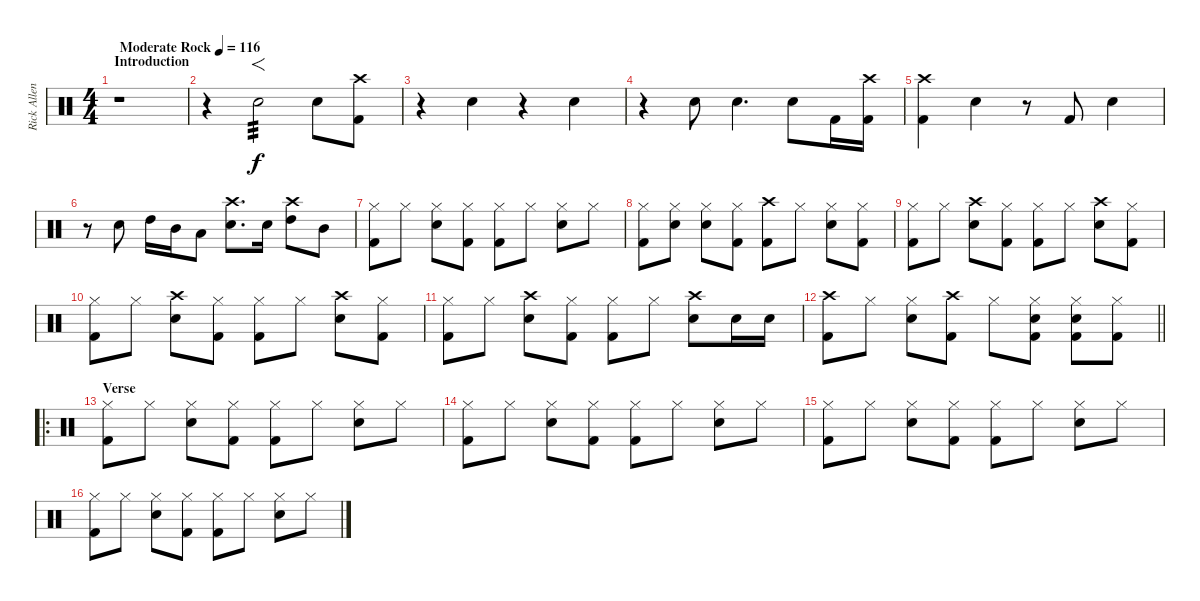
\track ("Rick Allen" "Rick Allen") {instrument percussion}
\staff {score}
\articulation defaults
\ts (4 4)
\section ("" "Introduction")
\tempo (116 "Moderate Rock")
\clef neutral
\ks c
r.1{dy f} |
r.4 "Electric Snare (hit)".2{f tp 3} "Electric Snare (hit)".8 ("Crash high (hit)" "Kick (hit) 2").8 |
r.4 "Electric Snare (hit)".4 r.4 "Electric Snare (hit)".4 |
r.4 "Electric Snare (hit)".8 "Electric Snare (hit)".4{d} "Electric Snare (hit)".8 "Kick (hit) 2".16 ("Crash high (hit)" "Kick (hit) 2").16 |
("Crash high (hit)" "Kick (hit) 2").4 "Electric Snare (hit)".4 r.8 "Kick (hit) 2".8 "Electric Snare (hit)".4 |
r.8 "Electric Snare (hit)".8 "High Tom (hit)".16 "Mid Tom (hit)".16 "Low Tom (hit)".8 ("Crash high (hit)" "Electric Snare (hit)").8{d} "Electric Snare (hit)".16 ("Crash high (hit)" "High Tom (hit)").8 "Mid Tom (hit)".8 |
("Hi-Hat (closed)" "Kick (hit) 2").8 "Hi-Hat (closed)".8 ("Hi-Hat (closed)" "Electric Snare (hit)").8 ("Hi-Hat (closed)" "Kick (hit) 2").8 ("Hi-Hat (closed)" "Kick (hit) 2").8 "Hi-Hat (closed)".8 ("Hi-Hat (closed)" "Electric Snare (hit)").8 "Hi-Hat (closed)".8 |
("Hi-Hat (closed)" "Kick (hit) 2").8 ("Hi-Hat (closed)" "Electric Snare (hit)").8 ("Hi-Hat (closed)" "Electric Snare (hit)").8 ("Hi-Hat (closed)" "Kick (hit) 2").8 ("Crash high (hit)" "Kick (hit) 2").8 "Hi-Hat (closed)".8 ("Hi-Hat (closed)" "Electric Snare (hit)").8 ("Hi-Hat (closed)" "Kick (hit) 2").8 |
("Hi-Hat (closed)" "Kick (hit) 2").8 "Hi-Hat (closed)".8 ("Crash high (hit)" "Electric Snare (hit)").8 ("Hi-Hat (closed)" "Kick (hit) 2").8 ("Hi-Hat (closed)" "Kick (hit) 2").8 "Hi-Hat (closed)".8 ("Crash high (hit)" "Electric Snare (hit)").8 ("Hi-Hat (closed)" "Kick (hit) 2").8 |
("Hi-Hat (closed)" "Kick (hit) 2").8 "Hi-Hat (closed)".8 ("Crash high (hit)" "Electric Snare (hit)").8 ("Hi-Hat (closed)" "Kick (hit) 2").8 ("Hi-Hat (closed)" "Kick (hit) 2").8 "Hi-Hat (closed)".8 ("Crash high (hit)" "Electric Snare (hit)").8 ("Hi-Hat (closed)" "Kick (hit) 2").8 |
("Hi-Hat (closed)" "Kick (hit) 2").8 "Hi-Hat (closed)".8 ("Crash high (hit)" "Electric Snare (hit)").8 ("Hi-Hat (closed)" "Kick (hit) 2").8 ("Hi-Hat (closed)" "Kick (hit) 2").8 "Hi-Hat (closed)".8 ("Crash high (hit)" "Electric Snare (hit)").8 "Electric Snare (hit)".16 "Electric Snare (hit)".16 |
\barLineRight lightlight
("Crash high (hit)" "Kick (hit) 2").8 "Hi-Hat (closed)".8 ("Hi-Hat (closed)" "Electric Snare (hit)").8 ("Crash high (hit)" "Kick (hit) 2").8 "Hi-Hat (closed)".8 ("Hi-Hat (closed)" "Electric Snare (hit)" "Kick (hit) 2").8 ("Hi-Hat (closed)" "Electric Snare (hit)" "Kick (hit) 2").8 ("Hi-Hat (closed)" "Kick (hit) 2").8 |
\ro
\section ("" "Verse")
("Hi-Hat (closed)" "Kick (hit) 2").8 "Hi-Hat (closed)".8 ("Hi-Hat (closed)" "Electric Snare (hit)").8 ("Hi-Hat (closed)" "Kick (hit) 2").8 ("Hi-Hat (closed)" "Kick (hit) 2").8 "Hi-Hat (closed)".8 ("Hi-Hat (closed)" "Electric Snare (hit)").8 "Hi-Hat (closed)".8 |
("Hi-Hat (closed)" "Kick (hit) 2").8 "Hi-Hat (closed)".8 ("Hi-Hat (closed)" "Electric Snare (hit)").8 ("Hi-Hat (closed)" "Kick (hit) 2").8 ("Hi-Hat (closed)" "Kick (hit) 2").8 "Hi-Hat (closed)".8 ("Hi-Hat (closed)" "Electric Snare (hit)").8 "Hi-Hat (closed)".8 |
("Hi-Hat (closed)" "Kick (hit) 2").8 "Hi-Hat (closed)".8 ("Hi-Hat (closed)" "Electric Snare (hit)").8 ("Hi-Hat (closed)" "Kick (hit) 2").8 ("Hi-Hat (closed)" "Kick (hit) 2").8 "Hi-Hat (closed)".8 ("Hi-Hat (closed)" "Electric Snare (hit)").8 "Hi-Hat (closed)".8 |
("Hi-Hat (closed)" "Kick (hit) 2").8 "Hi-Hat (closed)".8 ("Hi-Hat (closed)" "Electric Snare (hit)").8 ("Hi-Hat (closed)" "Kick (hit) 2").8 ("Hi-Hat (closed)" "Kick (hit) 2").8 "Hi-Hat (closed)".8 ("Hi-Hat (closed)" "Electric Snare (hit)").8 "Hi-Hat (closed)".8
